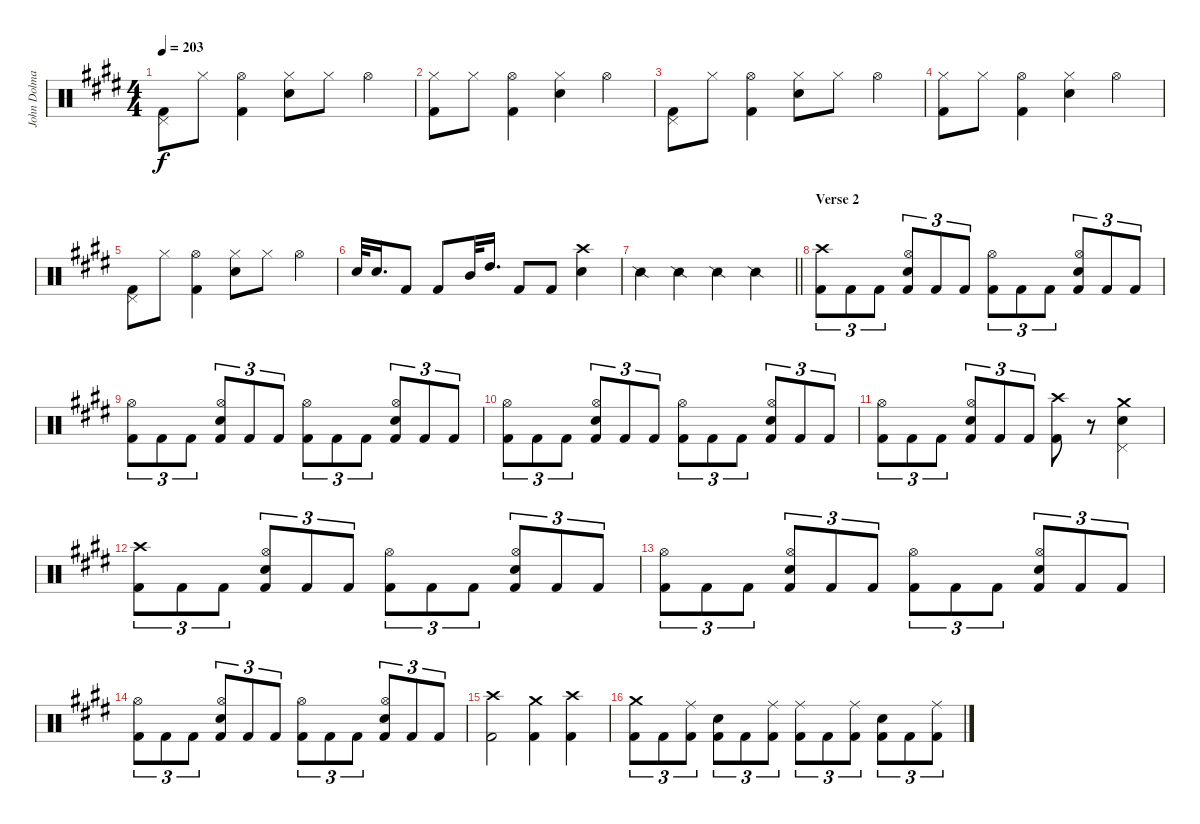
\track ("John Dolmayan [Drums]" "John Dolma") {instrument percussion}
\staff {score}
\articulation defaults
\ts (4 4)
\tempo 203
\clef neutral
\ks c#minor
("Pedal Hi-Hat (hit)" "Kick (hit) 2").8{dy f} "Hi-Hat (closed)".8 ("Hi-Hat (open)" "Kick (hit) 2").4 ("Hi-Hat (closed)" "Electric Snare (hit)").8 "Hi-Hat (closed)".8 "Hi-Hat (open)".4 |
("Hi-Hat (closed)" "Kick (hit) 2").8 "Hi-Hat (closed)".8 ("Hi-Hat (open)" "Kick (hit) 2").4 ("Hi-Hat (closed)" "Electric Snare (hit)").4 "Hi-Hat (open)".4 |
("Pedal Hi-Hat (hit)" "Kick (hit) 2").8 "Hi-Hat (closed)".8 ("Hi-Hat (open)" "Kick (hit) 2").4 ("Hi-Hat (closed)" "Electric Snare (hit)").8 "Hi-Hat (closed)".8 "Hi-Hat (open)".4 |
("Hi-Hat (closed)" "Kick (hit) 2").8 "Hi-Hat (closed)".8 ("Hi-Hat (open)" "Kick (hit) 2").4 ("Hi-Hat (closed)" "Electric Snare (hit)").4 "Hi-Hat (open)".4 |
("Pedal Hi-Hat (hit)" "Kick (hit) 2").8 "Hi-Hat (closed)".8 ("Hi-Hat (open)" "Kick (hit) 2").4 ("Hi-Hat (closed)" "Electric Snare (hit)").8 "Hi-Hat (closed)".8 "Hi-Hat (open)".4 |
"Electric Snare (hit)".32 "Electric Snare (hit)".16{d} "Kick (hit) 2".8 "Kick (hit) 2".8 "Mid Tom (hit)".32 "High Tom (hit)".16{d} "Kick (hit) 2".8 "Kick (hit) 2".8 ("Crash high (hit)" "Electric Snare (hit)").4 |
\barLineRight lightlight "Snare (side stick) 2".4 "Snare (side stick) 2".4 "Snare (side stick) 2".4 "Snare (side stick) 2".4
|
\section ("" "Verse 2")
("Crash high (hit)" "Kick (hit) 2").8{tu (3 2)} "Kick (hit) 2".8{tu (3 2)} "Kick (hit) 2".8{tu (3 2)} ("Hi-Hat (open)" "Electric Snare (hit)" "Kick (hit) 2").8{tu (3 2)} "Kick (hit) 2".8{tu (3 2)} "Kick (hit) 2".8{tu (3 2)} ("Hi-Hat (open)" "Kick (hit) 2").8{tu (3 2)} "Kick (hit) 2".8{tu (3 2)} "Kick (hit) 2".8{tu (3 2)} ("Hi-Hat (open)" "Electric Snare (hit)" "Kick (hit) 2").8{tu (3 2)} "Kick (hit) 2".8{tu (3 2)} "Kick (hit) 2".8{tu (3 2)} |
("Hi-Hat (open)" "Kick (hit) 2").8{tu (3 2)} "Kick (hit) 2".8{tu (3 2)} "Kick (hit) 2".8{tu (3 2)} ("Hi-Hat (open)" "Electric Snare (hit)" "Kick (hit) 2").8{tu (3 2)} "Kick (hit) 2".8{tu (3 2)} "Kick (hit) 2".8{tu (3 2)} ("Hi-Hat (open)" "Kick (hit) 2").8{tu (3 2)} "Kick (hit) 2".8{tu (3 2)} "Kick (hit) 2".8{tu (3 2)} ("Hi-Hat (open)" "Electric Snare (hit)" "Kick (hit) 2").8{tu (3 2)} "Kick (hit) 2".8{tu (3 2)} "Kick (hit) 2".8{tu (3 2)} |
("Hi-Hat (open)" "Kick (hit) 2").8{tu (3 2)} "Kick (hit) 2".8{tu (3 2)} "Kick (hit) 2".8{tu (3 2)} ("Hi-Hat (open)" "Electric Snare (hit)" "Kick (hit) 2").8{tu (3 2)} "Kick (hit) 2".8{tu (3 2)} "Kick (hit) 2".8{tu (3 2)} ("Hi-Hat (open)" "Kick (hit) 2").8{tu (3 2)} "Kick (hit) 2".8{tu (3 2)} "Kick (hit) 2".8{tu (3 2)} ("Hi-Hat (open)" "Electric Snare (hit)" "Kick (hit) 2").8{tu (3 2)} "Kick (hit) 2".8{tu (3 2)} "Kick (hit) 2".8{tu (3 2)} |
("Hi-Hat (open)" "Kick (hit) 2").8{tu (3 2)} "Kick (hit) 2".8{tu (3 2)} "Kick (hit) 2".8{tu (3 2)} ("Hi-Hat (open)" "Electric Snare (hit)" "Kick (hit) 2").8{tu (3 2)} "Kick (hit) 2".8{tu (3 2)} "Kick (hit) 2".8{tu (3 2)} ("Crash high (hit)" "Kick (hit) 2").8 r.8 ("Crash medium (hit)" "Pedal Hi-Hat (hit)" "Electric Snare (hit)").4 |
("Crash high (hit)" "Kick (hit) 2").8{tu (3 2)} "Kick (hit) 2".8{tu (3 2)} "Kick (hit) 2".8{tu (3 2)} ("Hi-Hat (open)" "Electric Snare (hit)" "Kick (hit) 2").8{tu (3 2)} "Kick (hit) 2".8{tu (3 2)} "Kick (hit) 2".8{tu (3 2)} ("Hi-Hat (open)" "Kick (hit) 2").8{tu (3 2)} "Kick (hit) 2".8{tu (3 2)} "Kick (hit) 2".8{tu (3 2)} ("Hi-Hat (open)" "Electric Snare (hit)" "Kick (hit) 2").8{tu (3 2)} "Kick (hit) 2".8{tu (3 2)} "Kick (hit) 2".8{tu (3 2)} |
("Hi-Hat (open)" "Kick (hit) 2").8{tu (3 2)} "Kick (hit) 2".8{tu (3 2)} "Kick (hit) 2".8{tu (3 2)} ("Hi-Hat (open)" "Electric Snare (hit)" "Kick (hit) 2").8{tu (3 2)} "Kick (hit) 2".8{tu (3 2)} "Kick (hit) 2".8{tu (3 2)} ("Hi-Hat (open)" "Kick (hit) 2").8{tu (3 2)} "Kick (hit) 2".8{tu (3 2)} "Kick (hit) 2".8{tu (3 2)} ("Hi-Hat (open)" "Electric Snare (hit)" "Kick (hit) 2").8{tu (3 2)} "Kick (hit) 2".8{tu (3 2)} "Kick (hit) 2".8{tu (3 2)} |
("Hi-Hat (open)" "Kick (hit) 2").8{tu (3 2)} "Kick (hit) 2".8{tu (3 2)} "Kick (hit) 2".8{tu (3 2)} ("Hi-Hat (open)" "Electric Snare (hit)" "Kick (hit) 2").8{tu (3 2)} "Kick (hit) 2".8{tu (3 2)} "Kick (hit) 2".8{tu (3 2)} ("Hi-Hat (open)" "Kick (hit) 2").8{tu (3 2)} "Kick (hit) 2".8{tu (3 2)} "Kick (hit) 2".8{tu (3 2)} ("Hi-Hat (open)" "Electric Snare (hit)" "Kick (hit) 2").8{tu (3 2)} "Kick (hit) 2".8{tu (3 2)} "Kick (hit) 2".8{tu (3 2)} |
("Crash high (hit)" "Kick (hit) 2").2 ("Crash medium (hit)" "Kick (hit) 2").4 ("Crash high (hit)" "Kick (hit) 2").4 |
("Crash medium (hit)" "Kick (hit) 2").8{tu (3 2)} "Kick (hit) 2".8{tu (3 2)} ("Ride (middle)" "Kick (hit) 2").8{tu (3 2)} ("Electric Snare (hit)" "Kick (hit) 2").8{tu (3 2)} "Kick (hit) 2".8{tu (3 2)} ("Ride (middle)" "Kick (hit) 2").8{tu (3 2)} ("Ride (middle)" "Kick (hit) 2").8{tu (3 2)} "Kick (hit) 2".8{tu (3 2)} ("Ride (middle)" "Kick (hit) 2").8{tu (3 2)} ("Electric Snare (hit)" "Kick (hit) 2").8{tu (3 2)} "Kick (hit) 2".8{tu (3 2)} ("Ride (middle)" "Kick (hit) 2").8{tu (3 2)}
